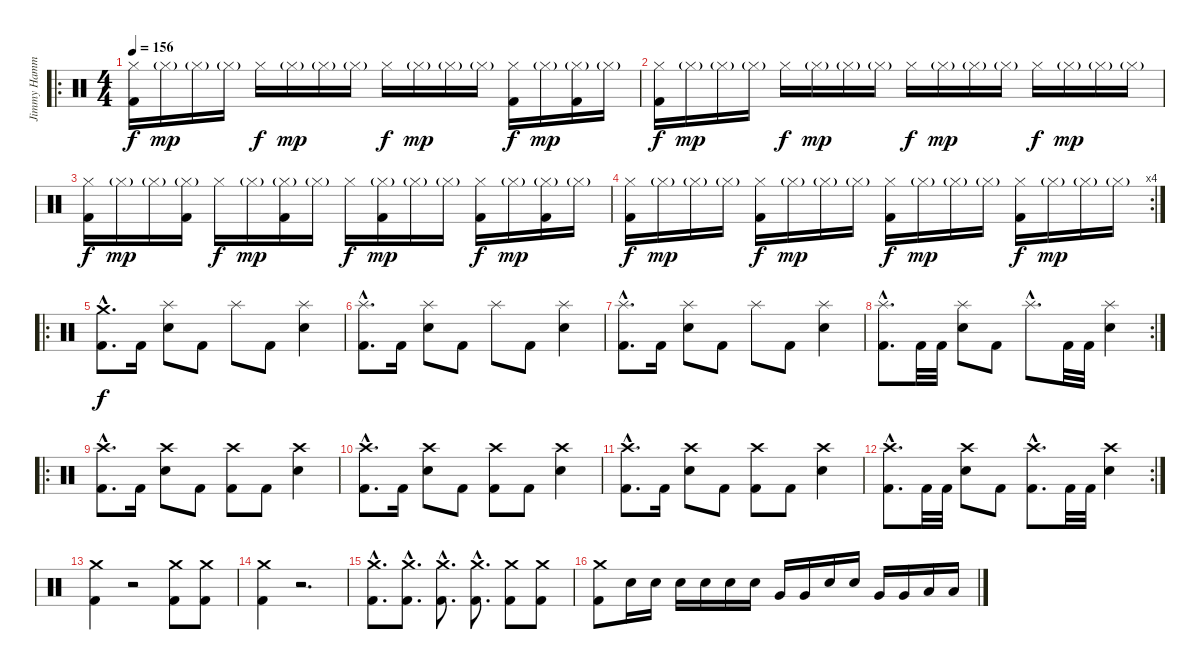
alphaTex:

\track ("Jimmy Hammer" "Jimmy Hamm") {instrument percussion}
\staff {score}
\articulation defaults
\ro
\ts (4 4)
\tempo 156
\clef neutral
\ks c
("Kick (hit) 2" "Hi-Hat (closed)").16{dy f} "Hi-Hat (closed)"{g}.16{dy mp} "Hi-Hat (closed)"{g}.16 "Hi-Hat (closed)"{g}.16 "Hi-Hat (closed)".16{dy f} "Hi-Hat (closed)"{g}.16{dy mp} "Hi-Hat (closed)"{g}.16 "Hi-Hat (closed)"{g}.16 "Hi-Hat (closed)".16{dy f} "Hi-Hat (closed)"{g}.16{dy mp} "Hi-Hat (closed)"{g}.16 "Hi-Hat (closed)"{g}.16 ("Kick (hit) 2" "Hi-Hat (closed)").16{dy f} "Hi-Hat (closed)"{g}.16{dy mp} ("Kick (hit) 2" "Hi-Hat (closed)"{g}).16 "Hi-Hat (closed)"{g}.16 |
("Kick (hit) 2" "Hi-Hat (closed)").16{dy f} "Hi-Hat (closed)"{g}.16{dy mp} "Hi-Hat (closed)"{g}.16 "Hi-Hat (closed)"{g}.16 "Hi-Hat (closed)".16{dy f} "Hi-Hat (closed)"{g}.16{dy mp} "Hi-Hat (closed)"{g}.16 "Hi-Hat (closed)"{g}.16 "Hi-Hat (closed)".16{dy f} "Hi-Hat (closed)"{g}.16{dy mp} "Hi-Hat (closed)"{g}.16 "Hi-Hat (closed)"{g}.16 "Hi-Hat (closed)".16{dy f} "Hi-Hat (closed)"{g}.16{dy mp} "Hi-Hat (closed)"{g}.16 "Hi-Hat (closed)"{g}.16 |
("Kick (hit) 2" "Hi-Hat (closed)").16{dy f} "Hi-Hat (closed)"{g}.16{dy mp} "Hi-Hat (closed)"{g}.16 ("Kick (hit) 2" "Hi-Hat (closed)"{g}).16 "Hi-Hat (closed)".16{dy f} "Hi-Hat (closed)"{g}.16{dy mp} ("Kick (hit) 2" "Hi-Hat (closed)"{g}).16 "Hi-Hat (closed)"{g}.16 "Hi-Hat (closed)".16{dy f} ("Kick (hit) 2" "Hi-Hat (closed)"{g}).16{dy mp} "Hi-Hat (closed)"{g}.16 "Hi-Hat (closed)"{g}.16 ("Kick (hit) 2" "Hi-Hat (closed)").16{dy f} "Hi-Hat (closed)"{g}.16{dy mp} ("Kick (hit) 2" "Hi-Hat (closed)"{g}).16 "Hi-Hat (closed)"{g}.16 |
\rc 4
("Kick (hit) 2" "Hi-Hat (closed)").16{dy f} "Hi-Hat (closed)"{g}.16{dy mp} "Hi-Hat (closed)"{g}.16 "Hi-Hat (closed)"{g}.16 ("Kick (hit) 2" "Hi-Hat (closed)").16{dy f} "Hi-Hat (closed)"{g}.16{dy mp} "Hi-Hat (closed)"{g}.16 "Hi-Hat (closed)"{g}.16 ("Kick (hit) 2" "Hi-Hat (closed)").16{dy f} "Hi-Hat (closed)"{g}.16{dy mp} "Hi-Hat (closed)"{g}.16 "Hi-Hat (closed)"{g}.16 ("Kick (hit) 2" "Hi-Hat (closed)").16{dy f} "Hi-Hat (closed)"{g}.16{dy mp} "Hi-Hat (closed)"{g}.16 "Hi-Hat (closed)"{g}.16 |
\ro
("Kick (hit) 2"{hac} "Crash medium (hit)"{hac}).8{d dy f} "Kick (hit) 2".16 ("Snare (hit) 2" "Splash (hit)").8 "Kick (hit) 2".8 "Splash (hit)".8 "Kick (hit) 2".8 ("Snare (hit) 2" "Splash (hit)").4 |
("Kick (hit) 2"{hac} "Splash (hit)"{hac}).8{d} "Kick (hit) 2".16 ("Snare (hit) 2" "Splash (hit)").8 "Kick (hit) 2".8 "Splash (hit)".8 "Kick (hit) 2".8 ("Snare (hit) 2" "Splash (hit)").4 |
("Kick (hit) 2"{hac} "Splash (hit)"{hac}).8{d} "Kick (hit) 2".16 ("Snare (hit) 2" "Splash (hit)").8 "Kick (hit) 2".8 "Splash (hit)".8 "Kick (hit) 2".8 ("Snare (hit) 2" "Splash (hit)").4 |
\rc 2
("Kick (hit) 2"{hac} "Splash (hit)"{hac}).8{d} "Kick (hit) 2".32 "Kick (hit) 2".32 ("Snare (hit) 2" "Splash (hit)").8 "Kick (hit) 2".8 "Splash (hit)"{hac}.8{d} "Kick (hit) 2".32 "Kick (hit) 2".32 ("Snare (hit) 2" "Splash (hit)").4 |
\ro
("Kick (hit) 2"{hac} "Crash high (hit)"{hac}).8{d} "Kick (hit) 2".16 ("Snare (hit) 2" "Crash high (hit)").8 "Kick (hit) 2".8 ("Kick (hit) 2" "Crash high (hit)").8 "Kick (hit) 2".8 ("Snare (hit) 2" "Crash high (hit)").4 |
("Kick (hit) 2"{hac} "Crash high (hit)"{hac}).8{d} "Kick (hit) 2".16 ("Snare (hit) 2" "Crash high (hit)").8 "Kick (hit) 2".8 ("Kick (hit) 2" "Crash high (hit)").8 "Kick (hit) 2".8 ("Snare (hit) 2" "Crash high (hit)").4 |
("Kick (hit) 2"{hac} "Crash high (hit)"{hac}).8{d} "Kick (hit) 2".16 ("Snare (hit) 2" "Crash high (hit)").8 "Kick (hit) 2".8 ("Kick (hit) 2" "Crash high (hit)").8 "Kick (hit) 2".8 ("Snare (hit) 2" "Crash high (hit)").4 |
\rc 2
("Kick (hit) 2"{hac} "Crash high (hit)"{hac}).8{d} "Kick (hit) 2".32 "Kick (hit) 2".32 ("Snare (hit) 2" "Crash high (hit)").8 "Kick (hit) 2".8 ("Kick (hit) 2" "Crash high (hit)"{hac}).8{d} "Kick (hit) 2".32 "Kick (hit) 2".32 ("Snare (hit) 2" "Crash high (hit)").4 |
("Kick (hit) 2" "Crash medium (hit)").4 r.2 ("Kick (hit) 2" "Crash medium (hit)").8 ("Kick (hit) 2" "Crash medium (hit)").8 |
("Kick (hit) 2" "Crash medium (hit)").4 r.2{d} |
("Kick (hit) 2"{hac} "Crash medium (hit)"{hac}).8{d} ("Kick (hit) 2"{hac} "Crash medium (hit)"{hac}).8{d} ("Kick (hit) 2"{hac} "Crash medium (hit)"{hac}).8{d} ("Kick (hit) 2"{hac} "Crash medium (hit)"{hac}).8{d} ("Kick (hit) 2" "Crash medium (hit)").8 ("Kick (hit) 2" "Crash medium (hit)").8 |
("Kick (hit) 2" "Crash medium (hit)").8 "Snare (hit) 2".16 "Snare (hit) 2".16 "Snare (hit) 2".16 "Snare (hit) 2".16 "Snare (hit) 2".16 "Snare (hit) 2".16 "Very Low Tom (hit)".16 "Very Low Tom (hit)".16 "Snare (hit) 2".16 "Snare (hit) 2".16 "Very Low Tom (hit)".16 "Very Low Tom (hit)".16 "Low Floor Tom (hit)".16 "Low Floor Tom (hit)".16
